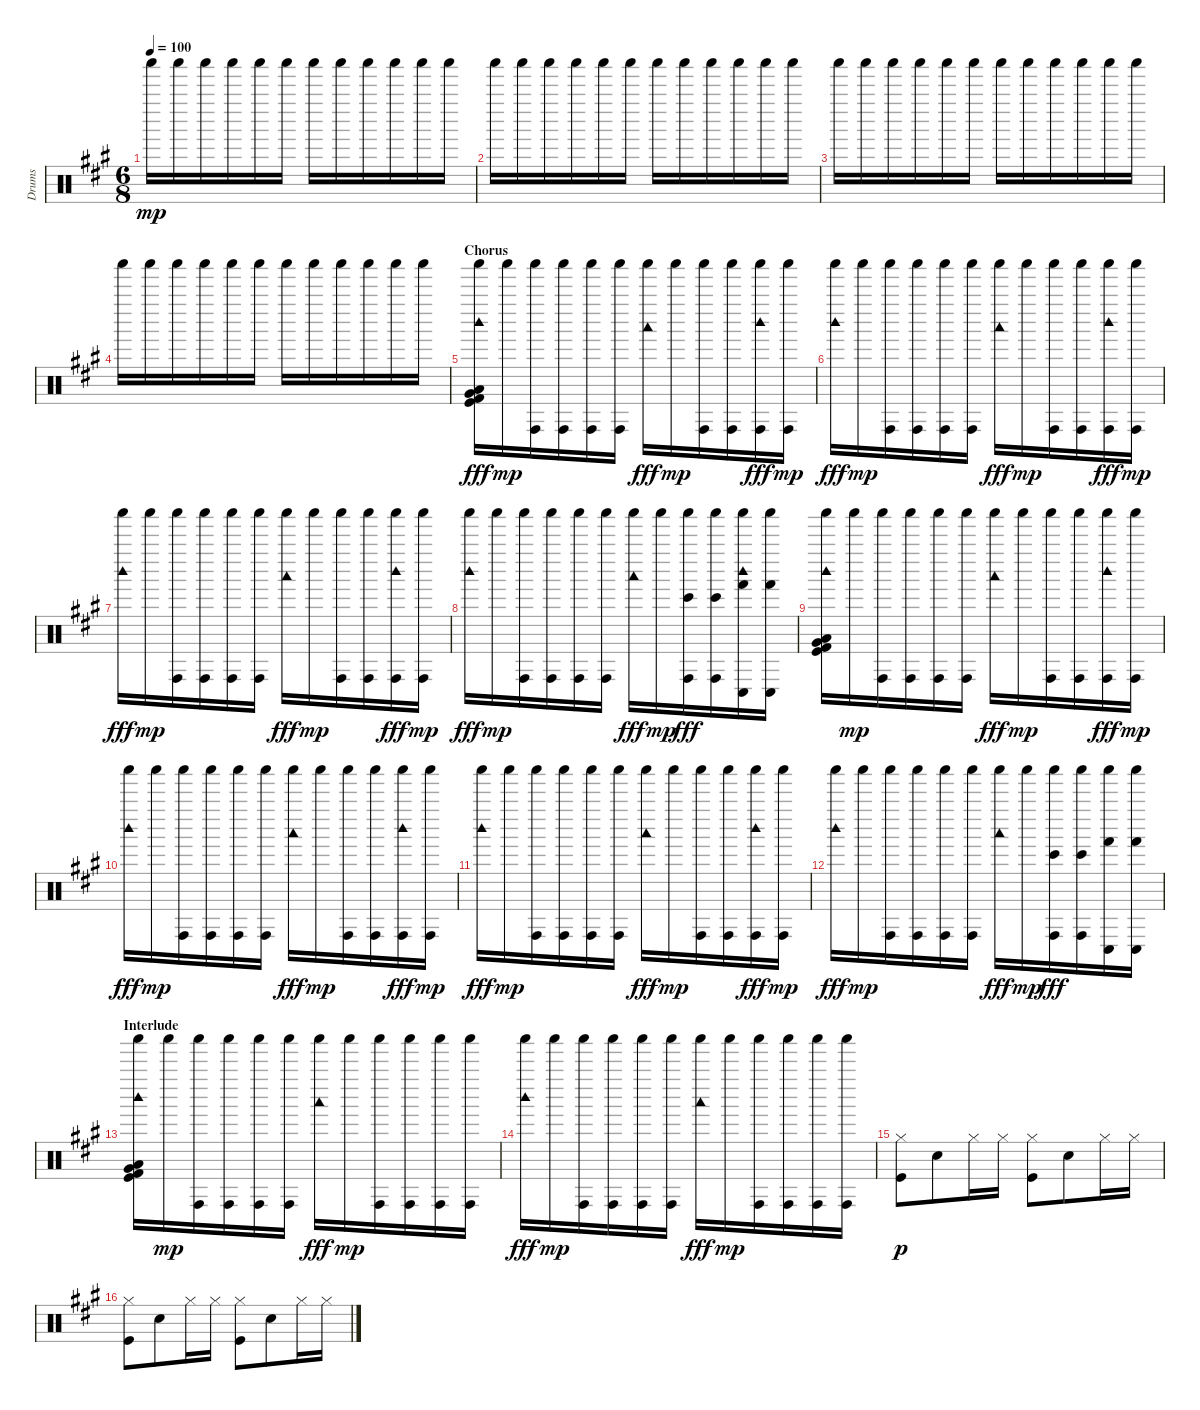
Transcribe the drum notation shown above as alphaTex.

\track ("Drums" "Drums") {instrument percussion}
\staff {score}
\articulation defaults
\ts (6 8)
\tempo 100
\clef neutral
\ks a "Shaker (hit)".16{dy mp} "Shaker (hit)".16 "Shaker (hit)".16 "Shaker (hit)".16 "Shaker (hit)".16 "Shaker (hit)".16 "Shaker (hit)".16 "Shaker (hit)".16 "Shaker (hit)".16 "Shaker (hit)".16 "Shaker (hit)".16 "Shaker (hit)".16
|
"Shaker (hit)".16 "Shaker (hit)".16 "Shaker (hit)".16 "Shaker (hit)".16 "Shaker (hit)".16 "Shaker (hit)".16 "Shaker (hit)".16 "Shaker (hit)".16 "Shaker (hit)".16 "Shaker (hit)".16 "Shaker (hit)".16 "Shaker (hit)".16 |
"Shaker (hit)".16 "Shaker (hit)".16 "Shaker (hit)".16 "Shaker (hit)".16 "Shaker (hit)".16 "Shaker (hit)".16 "Shaker (hit)".16 "Shaker (hit)".16 "Shaker (hit)".16 "Shaker (hit)".16 "Shaker (hit)".16 "Shaker (hit)".16 |
"Shaker (hit)".16 "Shaker (hit)".16 "Shaker (hit)".16 "Shaker (hit)".16 "Shaker (hit)".16 "Shaker (hit)".16 "Shaker (hit)".16 "Shaker (hit)".16 "Shaker (hit)".16 "Shaker (hit)".16 "Shaker (hit)".16 "Shaker (hit)".16 |
\section ("" "Chorus")
("Shaker (hit)" "Woodblock high (hit)" "Very Low Tom (hit)" "Low Floor Tom (hit)" "Kick (hit) 2" "Kick (hit)").16{dy fff} "Shaker (hit)".16{dy mp} ("Shaker (hit)" "Conga high (hit)").16 ("Shaker (hit)" "Conga high (hit)").16 ("Shaker (hit)" "Conga high (hit)").16 ("Shaker (hit)" "Conga high (hit)").16 ("Shaker (hit)" "Woodblock low (hit)").16{dy fff} "Shaker (hit)".16{dy mp} ("Shaker (hit)" "Conga high (hit)").16 ("Shaker (hit)" "Conga high (hit)").16 ("Shaker (hit)" "Woodblock high (hit)" "Conga high (hit)").16{dy fff} ("Shaker (hit)" "Conga high (hit)").16{dy mp} |
("Shaker (hit)" "Woodblock high (hit)").16{dy fff} "Shaker (hit)".16{dy mp} ("Shaker (hit)" "Conga high (hit)").16 ("Shaker (hit)" "Conga high (hit)").16 ("Shaker (hit)" "Conga high (hit)").16 ("Shaker (hit)" "Conga high (hit)").16 ("Shaker (hit)" "Woodblock low (hit)").16{dy fff} "Shaker (hit)".16{dy mp} ("Shaker (hit)" "Conga high (hit)").16 ("Shaker (hit)" "Conga high (hit)").16 ("Shaker (hit)" "Woodblock high (hit)" "Conga high (hit)").16{dy fff} ("Shaker (hit)" "Conga high (hit)").16{dy mp} |
("Shaker (hit)" "Woodblock high (hit)").16{dy fff} "Shaker (hit)".16{dy mp} ("Shaker (hit)" "Conga high (hit)").16 ("Shaker (hit)" "Conga high (hit)").16 ("Shaker (hit)" "Conga high (hit)").16 ("Shaker (hit)" "Conga high (hit)").16 ("Shaker (hit)" "Woodblock low (hit)").16{dy fff} "Shaker (hit)".16{dy mp} ("Shaker (hit)" "Conga high (hit)").16 ("Shaker (hit)" "Conga high (hit)").16 ("Shaker (hit)" "Woodblock high (hit)" "Conga high (hit)").16{dy fff} ("Shaker (hit)" "Conga high (hit)").16{dy mp} |
("Shaker (hit)" "Woodblock high (hit)").16{dy fff} "Shaker (hit)".16{dy mp} ("Shaker (hit)" "Conga high (hit)").16 ("Shaker (hit)" "Conga high (hit)").16 ("Shaker (hit)" "Conga high (hit)").16 ("Shaker (hit)" "Conga high (hit)").16 ("Shaker (hit)" "Woodblock low (hit)").16{dy fff} "Shaker (hit)".16{dy mp} ("Shaker (hit)" "Conga high (hit)" "Bongo High (hit)").16{dy fff} ("Shaker (hit)" "Conga high (hit)" "Bongo High (hit)").16 ("Shaker (hit)" "Woodblock high (hit)" "Conga low (hit)" "Hand (hit)").16 ("Shaker (hit)" "Conga low (hit)" "Hand (hit)").16 |
("Shaker (hit)" "Woodblock high (hit)" "Very Low Tom (hit)" "Low Floor Tom (hit)" "Kick (hit) 2" "Kick (hit)").16 "Shaker (hit)".16{dy mp} ("Shaker (hit)" "Conga high (hit)").16 ("Shaker (hit)" "Conga high (hit)").16 ("Shaker (hit)" "Conga high (hit)").16 ("Shaker (hit)" "Conga high (hit)").16 ("Shaker (hit)" "Woodblock low (hit)").16{dy fff} "Shaker (hit)".16{dy mp} ("Shaker (hit)" "Conga high (hit)").16 ("Shaker (hit)" "Conga high (hit)").16 ("Shaker (hit)" "Woodblock high (hit)" "Conga high (hit)").16{dy fff} ("Shaker (hit)" "Conga high (hit)").16{dy mp} |
("Shaker (hit)" "Woodblock high (hit)").16{dy fff} "Shaker (hit)".16{dy mp} ("Shaker (hit)" "Conga high (hit)").16 ("Shaker (hit)" "Conga high (hit)").16 ("Shaker (hit)" "Conga high (hit)").16 ("Shaker (hit)" "Conga high (hit)").16 ("Shaker (hit)" "Woodblock low (hit)").16{dy fff} "Shaker (hit)".16{dy mp} ("Shaker (hit)" "Conga high (hit)").16 ("Shaker (hit)" "Conga high (hit)").16 ("Shaker (hit)" "Woodblock high (hit)" "Conga high (hit)").16{dy fff} ("Shaker (hit)" "Conga high (hit)").16{dy mp} |
("Shaker (hit)" "Woodblock high (hit)").16{dy fff} "Shaker (hit)".16{dy mp} ("Shaker (hit)" "Conga high (hit)").16 ("Shaker (hit)" "Conga high (hit)").16 ("Shaker (hit)" "Conga high (hit)").16 ("Shaker (hit)" "Conga high (hit)").16 ("Shaker (hit)" "Woodblock low (hit)").16{dy fff} "Shaker (hit)".16{dy mp} ("Shaker (hit)" "Conga high (hit)").16 ("Shaker (hit)" "Conga high (hit)").16 ("Shaker (hit)" "Woodblock high (hit)" "Conga high (hit)").16{dy fff} ("Shaker (hit)" "Conga high (hit)").16{dy mp} |
("Shaker (hit)" "Woodblock high (hit)").16{dy fff} "Shaker (hit)".16{dy mp} ("Shaker (hit)" "Conga high (hit)").16 ("Shaker (hit)" "Conga high (hit)").16 ("Shaker (hit)" "Conga high (hit)").16 ("Shaker (hit)" "Conga high (hit)").16 ("Shaker (hit)" "Woodblock low (hit)").16{dy fff} "Shaker (hit)".16{dy mp} ("Shaker (hit)" "Conga high (hit)" "Bongo High (hit)").16{dy fff} ("Shaker (hit)" "Conga high (hit)" "Bongo High (hit)").16 ("Shaker (hit)" "Conga low (hit)" "Hand (hit)").16 ("Shaker (hit)" "Conga low (hit)" "Hand (hit)").16 |
\section ("" "Interlude")
("Shaker (hit)" "Woodblock high (hit)" "Very Low Tom (hit)" "Low Floor Tom (hit)" "Kick (hit) 2" "Kick (hit)").16 "Shaker (hit)".16{dy mp} ("Shaker (hit)" "Conga high (hit)").16 ("Shaker (hit)" "Conga high (hit)").16 ("Shaker (hit)" "Conga high (hit)").16 ("Shaker (hit)" "Conga high (hit)").16 ("Shaker (hit)" "Woodblock low (hit)").16{dy fff} "Shaker (hit)".16{dy mp} ("Shaker (hit)" "Conga high (hit)").16 ("Shaker (hit)" "Conga high (hit)").16 ("Shaker (hit)" "Conga high (hit)").16 ("Shaker (hit)" "Conga high (hit)").16 |
("Shaker (hit)" "Woodblock high (hit)").16{dy fff} "Shaker (hit)".16{dy mp} ("Shaker (hit)" "Conga high (hit)").16 ("Shaker (hit)" "Conga high (hit)").16 ("Shaker (hit)" "Conga high (hit)").16 ("Shaker (hit)" "Conga high (hit)").16 ("Shaker (hit)" "Woodblock low (hit)").16{dy fff} "Shaker (hit)".16{dy mp} ("Shaker (hit)" "Conga high (hit)").16 ("Shaker (hit)" "Conga high (hit)").16 ("Shaker (hit)" "Conga high (hit)").16 ("Shaker (hit)" "Conga high (hit)").16 |
("Hi-Hat (closed)" "Kick (hit)").8{dy p} "Electric Snare (hit)".8 "Hi-Hat (closed)".16 "Hi-Hat (closed)".16 ("Hi-Hat (closed)" "Kick (hit)").8 "Electric Snare (hit)".8 "Hi-Hat (closed)".16 "Hi-Hat (closed)".16 |
("Hi-Hat (closed)" "Kick (hit)").8 "Electric Snare (hit)".8 "Hi-Hat (closed)".16 "Hi-Hat (closed)".16 ("Hi-Hat (closed)" "Kick (hit)").8 "Electric Snare (hit)".8 "Hi-Hat (closed)".16 "Hi-Hat (closed)".16
